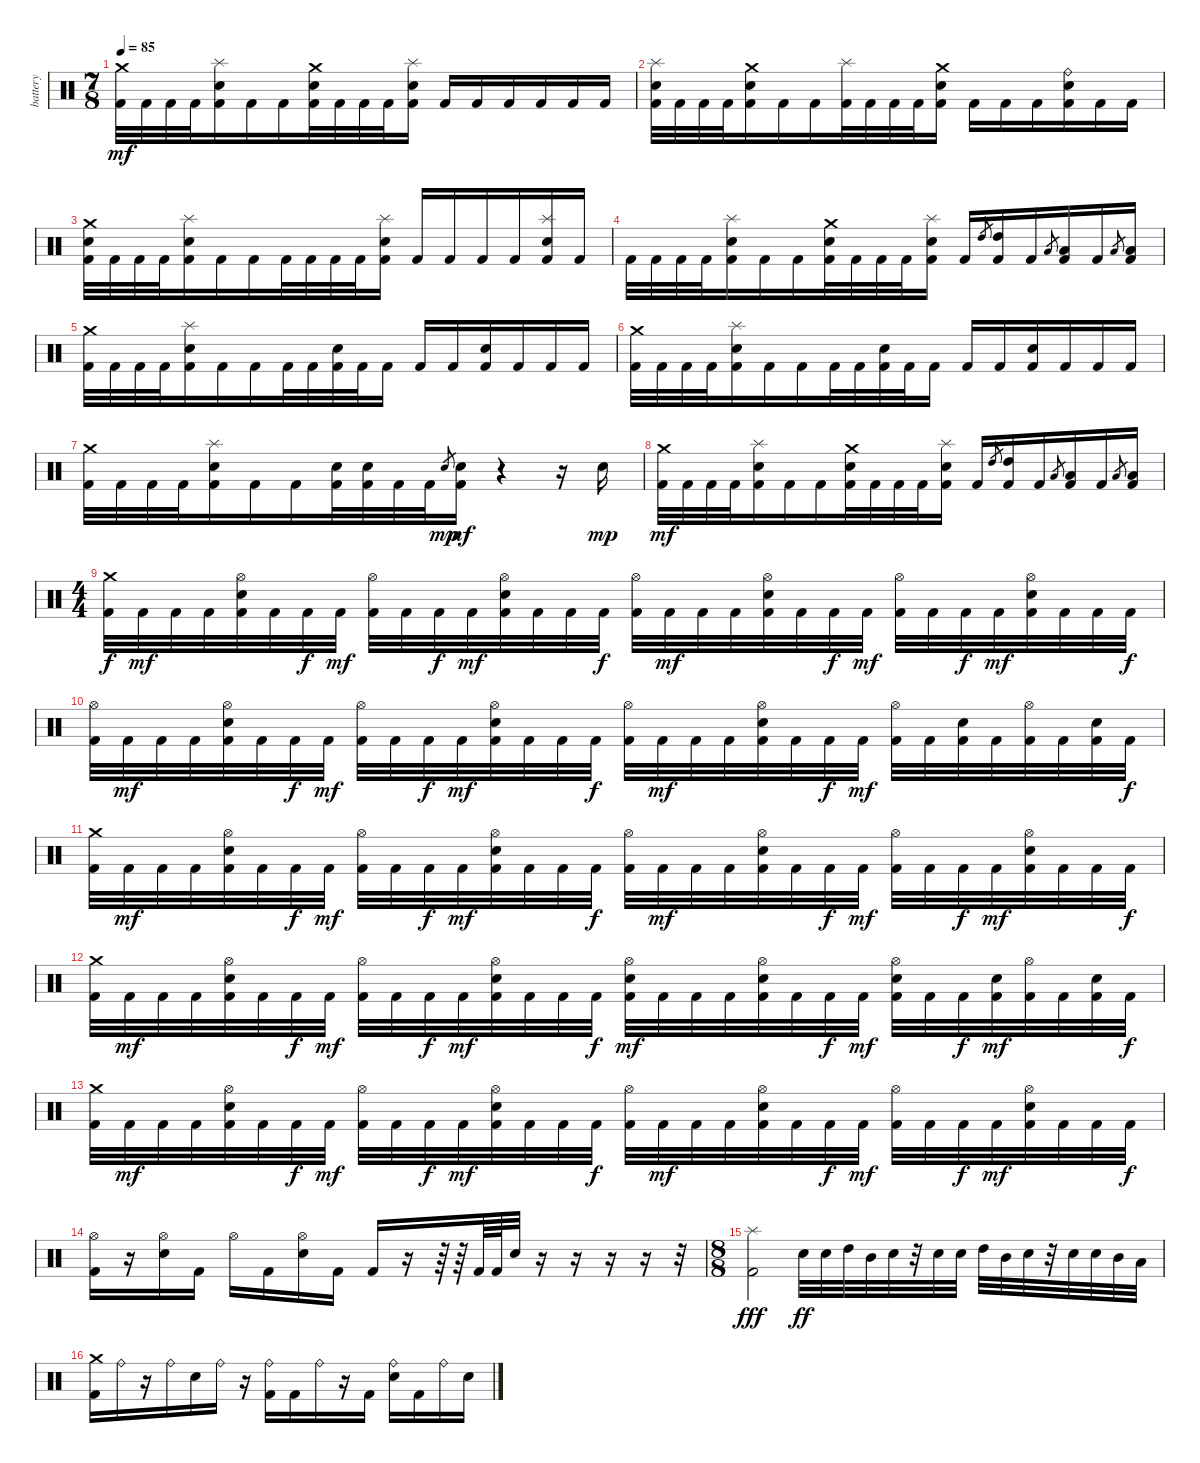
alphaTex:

\track ("battery" "battery") {instrument percussion}
\staff {score}
\articulation defaults
\ts (7 8)
\tempo 85
\clef neutral
\ks c
("Crash medium (hit)" "Kick (hit) 2").32{dy mf} "Kick (hit) 2".32 "Kick (hit) 2".32 "Kick (hit) 2".32 ("Splash (hit)" "Electric Snare (hit)" "Kick (hit) 2").16 "Kick (hit) 2".16 "Kick (hit) 2".16 ("Crash medium (hit)" "Electric Snare (hit)" "Kick (hit) 2").32 "Kick (hit) 2".32 "Kick (hit) 2".32 "Kick (hit) 2".32 ("Splash (hit)" "Electric Snare (hit)" "Kick (hit) 2").16 "Kick (hit) 2".16 "Kick (hit) 2".16 "Kick (hit) 2".16 "Kick (hit) 2".16 "Kick (hit) 2".16 "Kick (hit) 2".16 |
("Splash (hit)" "Electric Snare (hit)" "Kick (hit) 2").32 "Kick (hit) 2".32 "Kick (hit) 2".32 "Kick (hit) 2".32 ("Crash medium (hit)" "Electric Snare (hit)" "Kick (hit) 2").16 "Kick (hit) 2".16 "Kick (hit) 2".16 ("Splash (hit)" "Kick (hit) 2").32 "Kick (hit) 2".32 "Kick (hit) 2".32 "Kick (hit) 2".32 ("Crash medium (hit)" "Electric Snare (hit)" "Kick (hit) 2").16 "Kick (hit) 2".16 "Kick (hit) 2".16 "Kick (hit) 2".16 ("Ride (bell)" "Electric Snare (hit)" "Kick (hit) 2").16 "Kick (hit) 2".16 "Kick (hit) 2".16 |
("Electric Snare (hit)" "Crash medium (hit)" "Kick (hit) 2").32 "Kick (hit) 2".32 "Kick (hit) 2".32 "Kick (hit) 2".32 ("Splash (hit)" "Electric Snare (hit)" "Kick (hit) 2").16 "Kick (hit) 2".16 "Kick (hit) 2".16 "Kick (hit) 2".32 "Kick (hit) 2".32 "Kick (hit) 2".32 "Kick (hit) 2".32 ("Splash (hit)" "Electric Snare (hit)" "Kick (hit) 2").16 "Kick (hit) 2".16 "Kick (hit) 2".16 "Kick (hit) 2".16 "Kick (hit) 2".16 ("Splash (hit)" "Electric Snare (hit)" "Kick (hit) 2").16 "Kick (hit) 2".16 |
"Kick (hit) 2".32 "Kick (hit) 2".32 "Kick (hit) 2".32 "Kick (hit) 2".32 ("Splash (hit)" "Electric Snare (hit)" "Kick (hit) 2").16 "Kick (hit) 2".16 "Kick (hit) 2".16 ("Crash medium (hit)" "Electric Snare (hit)" "Kick (hit) 2").32 "Kick (hit) 2".32 "Kick (hit) 2".32 "Kick (hit) 2".32 ("Splash (hit)" "Electric Snare (hit)" "Kick (hit) 2").16 "Kick (hit) 2".16 "High Tom (hit)".8{gr} ("High Tom (hit)" "Kick (hit) 2").16 "Kick (hit) 2".16 "Low Tom (hit)".8{gr} ("Low Tom (hit)" "Kick (hit) 2").16 "Kick (hit) 2".16 "Low Floor Tom (hit)".8{gr} ("Low Floor Tom (hit)" "Kick (hit) 2").16 |
("Crash medium (hit)" "Kick (hit) 2").32 "Kick (hit) 2".32 "Kick (hit) 2".32 "Kick (hit) 2".32 ("Splash (hit)" "Electric Snare (hit)" "Kick (hit) 2").16 "Kick (hit) 2".16 "Kick (hit) 2".16 "Kick (hit) 2".32 "Kick (hit) 2".32 ("Electric Snare (hit)" "Kick (hit) 2").32 "Kick (hit) 2".32 "Kick (hit) 2".16 "Kick (hit) 2".16 "Kick (hit) 2".16 ("Electric Snare (hit)" "Kick (hit) 2").16 "Kick (hit) 2".16 "Kick (hit) 2".16 "Kick (hit) 2".16 |
("Crash medium (hit)" "Kick (hit) 2").32 "Kick (hit) 2".32 "Kick (hit) 2".32 "Kick (hit) 2".32 ("Splash (hit)" "Electric Snare (hit)" "Kick (hit) 2").16 "Kick (hit) 2".16 "Kick (hit) 2".16 "Kick (hit) 2".32 "Kick (hit) 2".32 ("Electric Snare (hit)" "Kick (hit) 2").32 "Kick (hit) 2".32 "Kick (hit) 2".16 "Kick (hit) 2".16 "Kick (hit) 2".16 ("Electric Snare (hit)" "Kick (hit) 2").16 "Kick (hit) 2".16 "Kick (hit) 2".16 "Kick (hit) 2".16 |
("Crash medium (hit)" "Kick (hit) 2").32 "Kick (hit) 2".32 "Kick (hit) 2".32 "Kick (hit) 2".32 ("Splash (hit)" "Electric Snare (hit)" "Kick (hit) 2").16 "Kick (hit) 2".16 "Kick (hit) 2".16 ("Electric Snare (hit)" "Kick (hit) 2").32 ("Electric Snare (hit)" "Kick (hit) 2").32 "Kick (hit) 2".32 "Kick (hit) 2".32 "Electric Snare (hit)".8{gr dy mp} ("Electric Snare (hit)" "Kick (hit) 2").16{dy mf} r.4 r.16 "Electric Snare (hit)".16{dy mp} |
("Crash medium (hit)" "Kick (hit) 2").32{dy mf} "Kick (hit) 2".32 "Kick (hit) 2".32 "Kick (hit) 2".32 ("Splash (hit)" "Electric Snare (hit)" "Kick (hit) 2").16 "Kick (hit) 2".16 "Kick (hit) 2".16 ("Crash medium (hit)" "Electric Snare (hit)" "Kick (hit) 2").32 "Kick (hit) 2".32 "Kick (hit) 2".32 "Kick (hit) 2".32 ("Splash (hit)" "Electric Snare (hit)" "Kick (hit) 2").16 "Kick (hit) 2".16 "High Tom (hit)".8{gr} ("High Tom (hit)" "Kick (hit) 2").16 "Kick (hit) 2".16 "Low Tom (hit)".8{gr} ("Low Tom (hit)" "Kick (hit) 2").16 "Kick (hit) 2".16 "Low Floor Tom (hit)".8{gr} ("Low Floor Tom (hit)" "Kick (hit) 2").16 |
\ts (4 4)
("Crash medium (hit)" "Kick (hit) 2").32{dy f} "Kick (hit) 2".32{dy mf} "Kick (hit) 2".32 "Kick (hit) 2".32 ("Hi-Hat (open)" "Electric Snare (hit)" "Kick (hit) 2").32 "Kick (hit) 2".32 "Kick (hit) 2".32{dy f} "Kick (hit) 2".32{dy mf} ("Hi-Hat (open)" "Kick (hit) 2").32 "Kick (hit) 2".32 "Kick (hit) 2".32{dy f} "Kick (hit) 2".32{dy mf} ("Hi-Hat (open)" "Electric Snare (hit)" "Kick (hit) 2").32 "Kick (hit) 2".32 "Kick (hit) 2".32 "Kick (hit) 2".32{dy f} ("Hi-Hat (open)" "Kick (hit) 2").32 "Kick (hit) 2".32{dy mf} "Kick (hit) 2".32 "Kick (hit) 2".32 ("Hi-Hat (open)" "Electric Snare (hit)" "Kick (hit) 2").32 "Kick (hit) 2".32 "Kick (hit) 2".32{dy f} "Kick (hit) 2".32{dy mf} ("Hi-Hat (open)" "Kick (hit) 2").32 "Kick (hit) 2".32 "Kick (hit) 2".32{dy f} "Kick (hit) 2".32{dy mf} ("Hi-Hat (open)" "Electric Snare (hit)" "Kick (hit) 2").32 "Kick (hit) 2".32 "Kick (hit) 2".32 "Kick (hit) 2".32{dy f} |
("Hi-Hat (open)" "Kick (hit) 2").32 "Kick (hit) 2".32{dy mf} "Kick (hit) 2".32 "Kick (hit) 2".32 ("Hi-Hat (open)" "Electric Snare (hit)" "Kick (hit) 2").32 "Kick (hit) 2".32 "Kick (hit) 2".32{dy f} "Kick (hit) 2".32{dy mf} ("Hi-Hat (open)" "Kick (hit) 2").32 "Kick (hit) 2".32 "Kick (hit) 2".32{dy f} "Kick (hit) 2".32{dy mf} ("Hi-Hat (open)" "Electric Snare (hit)" "Kick (hit) 2").32 "Kick (hit) 2".32 "Kick (hit) 2".32 "Kick (hit) 2".32{dy f} ("Hi-Hat (open)" "Kick (hit) 2").32 "Kick (hit) 2".32{dy mf} "Kick (hit) 2".32 "Kick (hit) 2".32 ("Hi-Hat (open)" "Electric Snare (hit)" "Kick (hit) 2").32 "Kick (hit) 2".32 "Kick (hit) 2".32{dy f} "Kick (hit) 2".32{dy mf} ("Hi-Hat (open)" "Kick (hit) 2").32 "Kick (hit) 2".32 ("Electric Snare (hit)" "Kick (hit) 2").32 "Kick (hit) 2".32 ("Hi-Hat (open)" "Kick (hit) 2").32 "Kick (hit) 2".32 ("Electric Snare (hit)" "Kick (hit) 2").32 "Kick (hit) 2".32{dy f} |
("Crash medium (hit)" "Kick (hit) 2").32 "Kick (hit) 2".32{dy mf} "Kick (hit) 2".32 "Kick (hit) 2".32 ("Hi-Hat (open)" "Electric Snare (hit)" "Kick (hit) 2").32 "Kick (hit) 2".32 "Kick (hit) 2".32{dy f} "Kick (hit) 2".32{dy mf} ("Hi-Hat (open)" "Kick (hit) 2").32 "Kick (hit) 2".32 "Kick (hit) 2".32{dy f} "Kick (hit) 2".32{dy mf} ("Hi-Hat (open)" "Electric Snare (hit)" "Kick (hit) 2").32 "Kick (hit) 2".32 "Kick (hit) 2".32 "Kick (hit) 2".32{dy f} ("Hi-Hat (open)" "Kick (hit) 2").32 "Kick (hit) 2".32{dy mf} "Kick (hit) 2".32 "Kick (hit) 2".32 ("Hi-Hat (open)" "Electric Snare (hit)" "Kick (hit) 2").32 "Kick (hit) 2".32 "Kick (hit) 2".32{dy f} "Kick (hit) 2".32{dy mf} ("Hi-Hat (open)" "Kick (hit) 2").32 "Kick (hit) 2".32 "Kick (hit) 2".32{dy f} "Kick (hit) 2".32{dy mf} ("Hi-Hat (open)" "Electric Snare (hit)" "Kick (hit) 2").32 "Kick (hit) 2".32 "Kick (hit) 2".32 "Kick (hit) 2".32{dy f} |
("Crash medium (hit)" "Kick (hit) 2").32 "Kick (hit) 2".32{dy mf} "Kick (hit) 2".32 "Kick (hit) 2".32 ("Hi-Hat (open)" "Electric Snare (hit)" "Kick (hit) 2").32 "Kick (hit) 2".32 "Kick (hit) 2".32{dy f} "Kick (hit) 2".32{dy mf} ("Hi-Hat (open)" "Kick (hit) 2").32 "Kick (hit) 2".32 "Kick (hit) 2".32{dy f} "Kick (hit) 2".32{dy mf} ("Hi-Hat (open)" "Electric Snare (hit)" "Kick (hit) 2").32 "Kick (hit) 2".32 "Kick (hit) 2".32 "Kick (hit) 2".32{dy f} ("Hi-Hat (open)" "Electric Snare (hit)" "Kick (hit) 2").32{dy mf} "Kick (hit) 2".32 "Kick (hit) 2".32 "Kick (hit) 2".32 ("Hi-Hat (open)" "Electric Snare (hit)" "Kick (hit) 2").32 "Kick (hit) 2".32 "Kick (hit) 2".32{dy f} "Kick (hit) 2".32{dy mf} ("Hi-Hat (open)" "Electric Snare (hit)" "Kick (hit) 2").32 "Kick (hit) 2".32 "Kick (hit) 2".32{dy f} ("Electric Snare (hit)" "Kick (hit) 2").32{dy mf} ("Hi-Hat (open)" "Kick (hit) 2").32 "Kick (hit) 2".32 ("Electric Snare (hit)" "Kick (hit) 2").32 "Kick (hit) 2".32{dy f} |
("Crash medium (hit)" "Kick (hit) 2").32 "Kick (hit) 2".32{dy mf} "Kick (hit) 2".32 "Kick (hit) 2".32 ("Hi-Hat (open)" "Electric Snare (hit)" "Kick (hit) 2").32 "Kick (hit) 2".32 "Kick (hit) 2".32{dy f} "Kick (hit) 2".32{dy mf} ("Hi-Hat (open)" "Kick (hit) 2").32 "Kick (hit) 2".32 "Kick (hit) 2".32{dy f} "Kick (hit) 2".32{dy mf} ("Hi-Hat (open)" "Electric Snare (hit)" "Kick (hit) 2").32 "Kick (hit) 2".32 "Kick (hit) 2".32 "Kick (hit) 2".32{dy f} ("Hi-Hat (open)" "Kick (hit) 2").32 "Kick (hit) 2".32{dy mf} "Kick (hit) 2".32 "Kick (hit) 2".32 ("Hi-Hat (open)" "Electric Snare (hit)" "Kick (hit) 2").32 "Kick (hit) 2".32 "Kick (hit) 2".32{dy f} "Kick (hit) 2".32{dy mf} ("Hi-Hat (open)" "Kick (hit) 2").32 "Kick (hit) 2".32 "Kick (hit) 2".32{dy f} "Kick (hit) 2".32{dy mf} ("Hi-Hat (open)" "Electric Snare (hit)" "Kick (hit) 2").32 "Kick (hit) 2".32 "Kick (hit) 2".32 "Kick (hit) 2".32{dy f} |
("Hi-Hat (open)" "Kick (hit) 2").16 r.16 ("Hi-Hat (open)" "Electric Snare (hit)").16 "Kick (hit) 2".16 "Hi-Hat (open)".16 "Kick (hit) 2".16 ("Hi-Hat (open)" "Electric Snare (hit)").16 "Kick (hit) 2".16 "Kick (hit) 2".16 r.16 r.64 r.64 "Kick (hit) 2".64 "Kick (hit) 2".64 "Electric Snare (hit)".32 r.16 r.16 r.16 r.16 r.32 |
\ts (8 8)
("Splash (hit)" "Kick (hit) 2").2{dy fff} "Electric Snare (hit)".32{dy ff} "Electric Snare (hit)".32 "High Tom (hit)".32 "Mid Tom (hit)".32 "Electric Snare (hit)".32 r.32 "Electric Snare (hit)".32 "Electric Snare (hit)".32 "High Tom (hit)".32 "Mid Tom (hit)".32 "Electric Snare (hit)".32 r.32 "Electric Snare (hit)".32 "Electric Snare (hit)".32 "Mid Tom (hit)".32 "Low Tom (hit)".32 |
("Crash medium (hit)" "Kick (hit) 2").16 "Ride (bell)".16 r.16 "Ride (bell)".16 "Electric Snare (hit)".16 "Ride (bell)".16 r.16 ("Ride (bell)" "Kick (hit) 2").16 "Kick (hit) 2".16 "Ride (bell)".16 r.16 "Kick (hit) 2".16 ("Ride (bell)" "Electric Snare (hit)").16 "Kick (hit) 2".16 "Ride (bell)".16 "Electric Snare (hit)".16
